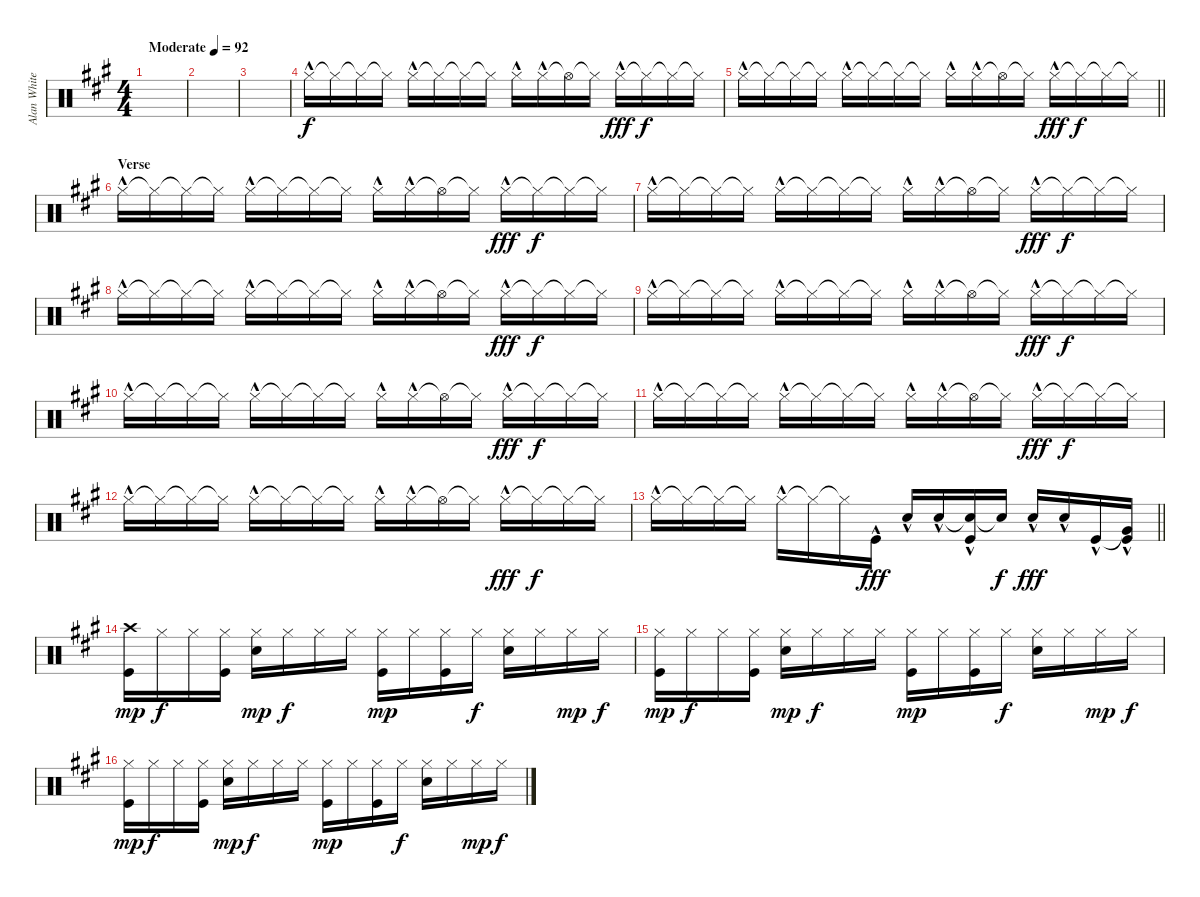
\track ("Alan White" "Alan White") {instrument percussion}
\staff {score}
\articulation defaults
\ts (4 4)
\tempo (92 "Moderate")
\clef neutral
\ks a
|
|
|
"Hi-Hat (closed)"{hac}.16 "Hi-Hat (closed)"{t}.16 "Hi-Hat (closed)"{t}.16 "Hi-Hat (closed)"{t}.16 "Hi-Hat (closed)"{hac}.16 "Hi-Hat (closed)"{t}.16 "Hi-Hat (closed)"{t}.16 "Hi-Hat (closed)"{t}.16 "Hi-Hat (closed)"{hac}.16 "Hi-Hat (closed)"{hac}.16 "Hi-Hat (open)"{t}.16 "Hi-Hat (closed)"{t}.16 "Hi-Hat (closed)"{hac}.16{dy fff} "Hi-Hat (closed)"{t}.16{dy f} "Hi-Hat (closed)"{t}.16 "Hi-Hat (closed)"{t}.16 |
\barLineRight lightlight "Hi-Hat (closed)"{hac}.16 "Hi-Hat (closed)"{t}.16 "Hi-Hat (closed)"{t}.16 "Hi-Hat (closed)"{t}.16 "Hi-Hat (closed)"{hac}.16 "Hi-Hat (closed)"{t}.16 "Hi-Hat (closed)"{t}.16 "Hi-Hat (closed)"{t}.16 "Hi-Hat (closed)"{hac}.16 "Hi-Hat (closed)"{hac}.16 "Hi-Hat (open)"{t}.16 "Hi-Hat (closed)"{t}.16 "Hi-Hat (closed)"{hac}.16{dy fff} "Hi-Hat (closed)"{t}.16{dy f} "Hi-Hat (closed)"{t}.16 "Hi-Hat (closed)"{t}.16
|
\section ("" "Verse")
"Hi-Hat (closed)"{hac}.16 "Hi-Hat (closed)"{t}.16 "Hi-Hat (closed)"{t}.16 "Hi-Hat (closed)"{t}.16 "Hi-Hat (closed)"{hac}.16 "Hi-Hat (closed)"{t}.16 "Hi-Hat (closed)"{t}.16 "Hi-Hat (closed)"{t}.16 "Hi-Hat (closed)"{hac}.16 "Hi-Hat (closed)"{hac}.16 "Hi-Hat (open)"{t}.16 "Hi-Hat (closed)"{t}.16 "Hi-Hat (closed)"{hac}.16{dy fff} "Hi-Hat (closed)"{t}.16{dy f} "Hi-Hat (closed)"{t}.16 "Hi-Hat (closed)"{t}.16 |
"Hi-Hat (closed)"{hac}.16 "Hi-Hat (closed)"{t}.16 "Hi-Hat (closed)"{t}.16 "Hi-Hat (closed)"{t}.16 "Hi-Hat (closed)"{hac}.16 "Hi-Hat (closed)"{t}.16 "Hi-Hat (closed)"{t}.16 "Hi-Hat (closed)"{t}.16 "Hi-Hat (closed)"{hac}.16 "Hi-Hat (closed)"{hac}.16 "Hi-Hat (open)"{t}.16 "Hi-Hat (closed)"{t}.16 "Hi-Hat (closed)"{hac}.16{dy fff} "Hi-Hat (closed)"{t}.16{dy f} "Hi-Hat (closed)"{t}.16 "Hi-Hat (closed)"{t}.16 |
"Hi-Hat (closed)"{hac}.16 "Hi-Hat (closed)"{t}.16 "Hi-Hat (closed)"{t}.16 "Hi-Hat (closed)"{t}.16 "Hi-Hat (closed)"{hac}.16 "Hi-Hat (closed)"{t}.16 "Hi-Hat (closed)"{t}.16 "Hi-Hat (closed)"{t}.16 "Hi-Hat (closed)"{hac}.16 "Hi-Hat (closed)"{hac}.16 "Hi-Hat (open)"{t}.16 "Hi-Hat (closed)"{t}.16 "Hi-Hat (closed)"{hac}.16{dy fff} "Hi-Hat (closed)"{t}.16{dy f} "Hi-Hat (closed)"{t}.16 "Hi-Hat (closed)"{t}.16 |
"Hi-Hat (closed)"{hac}.16 "Hi-Hat (closed)"{t}.16 "Hi-Hat (closed)"{t}.16 "Hi-Hat (closed)"{t}.16 "Hi-Hat (closed)"{hac}.16 "Hi-Hat (closed)"{t}.16 "Hi-Hat (closed)"{t}.16 "Hi-Hat (closed)"{t}.16 "Hi-Hat (closed)"{hac}.16 "Hi-Hat (closed)"{hac}.16 "Hi-Hat (open)"{t}.16 "Hi-Hat (closed)"{t}.16 "Hi-Hat (closed)"{hac}.16{dy fff} "Hi-Hat (closed)"{t}.16{dy f} "Hi-Hat (closed)"{t}.16 "Hi-Hat (closed)"{t}.16 |
"Hi-Hat (closed)"{hac}.16 "Hi-Hat (closed)"{t}.16 "Hi-Hat (closed)"{t}.16 "Hi-Hat (closed)"{t}.16 "Hi-Hat (closed)"{hac}.16 "Hi-Hat (closed)"{t}.16 "Hi-Hat (closed)"{t}.16 "Hi-Hat (closed)"{t}.16 "Hi-Hat (closed)"{hac}.16 "Hi-Hat (closed)"{hac}.16 "Hi-Hat (open)"{t}.16 "Hi-Hat (closed)"{t}.16 "Hi-Hat (closed)"{hac}.16{dy fff} "Hi-Hat (closed)"{t}.16{dy f} "Hi-Hat (closed)"{t}.16 "Hi-Hat (closed)"{t}.16 |
"Hi-Hat (closed)"{hac}.16 "Hi-Hat (closed)"{t}.16 "Hi-Hat (closed)"{t}.16 "Hi-Hat (closed)"{t}.16 "Hi-Hat (closed)"{hac}.16 "Hi-Hat (closed)"{t}.16 "Hi-Hat (closed)"{t}.16 "Hi-Hat (closed)"{t}.16 "Hi-Hat (closed)"{hac}.16 "Hi-Hat (closed)"{hac}.16 "Hi-Hat (open)"{t}.16 "Hi-Hat (closed)"{t}.16 "Hi-Hat (closed)"{hac}.16{dy fff} "Hi-Hat (closed)"{t}.16{dy f} "Hi-Hat (closed)"{t}.16 "Hi-Hat (closed)"{t}.16 |
"Hi-Hat (closed)"{hac}.16 "Hi-Hat (closed)"{t}.16 "Hi-Hat (closed)"{t}.16 "Hi-Hat (closed)"{t}.16 "Hi-Hat (closed)"{hac}.16 "Hi-Hat (closed)"{t}.16 "Hi-Hat (closed)"{t}.16 "Hi-Hat (closed)"{t}.16 "Hi-Hat (closed)"{hac}.16 "Hi-Hat (closed)"{hac}.16 "Hi-Hat (open)"{t}.16 "Hi-Hat (closed)"{t}.16 "Hi-Hat (closed)"{hac}.16{dy fff} "Hi-Hat (closed)"{t}.16{dy f} "Hi-Hat (closed)"{t}.16 "Hi-Hat (closed)"{t}.16 |
\barLineRight lightlight "Hi-Hat (closed)"{hac}.16 "Hi-Hat (closed)"{t}.16 "Hi-Hat (closed)"{t}.16 "Hi-Hat (closed)"{t}.16 "Hi-Hat (closed)"{hac}.16 "Hi-Hat (closed)"{t}.16 "Hi-Hat (closed)"{t}.16 "Kick (hit)"{hac}.16{dy fff} "Snare (hit) 2"{hac}.16 "Snare (hit) 2"{hac}.16
("Snare (hit) 2"{t} "Kick (hit)"{hac}).16 "Snare (hit) 2"{t}.16{dy f} "Snare (hit) 2"{hac}.16{dy fff} "Snare (hit) 2"{hac}.16 "Kick (hit)"{hac}.16 ("Very Low Tom (hit)"{t} "Kick (hit)"{hac}).16 |
\section ("" "")
("Crash high (hit)" "Kick (hit)").16{dy mp} "Hi-Hat (closed)".16{dy f} "Hi-Hat (closed)".16 ("Hi-Hat (closed)" "Kick (hit)").16 ("Hi-Hat (closed)" "Snare (hit) 2").16{dy mp} "Hi-Hat (closed)".16{dy f} "Hi-Hat (closed)".16 "Hi-Hat (closed)".16 ("Hi-Hat (closed)" "Kick (hit)").16{dy mp} "Hi-Hat (closed)".16 ("Hi-Hat (closed)" "Kick (hit)").16 "Hi-Hat (closed)".16{dy f} ("Hi-Hat (closed)" "Snare (hit) 2").16 "Hi-Hat (closed)".16 "Hi-Hat (closed)".16{dy mp} "Hi-Hat (closed)".16{dy f} |
("Hi-Hat (closed)" "Kick (hit)").16{dy mp} "Hi-Hat (closed)".16{dy f} "Hi-Hat (closed)".16 ("Hi-Hat (closed)" "Kick (hit)").16 ("Hi-Hat (closed)" "Snare (hit) 2").16{dy mp} "Hi-Hat (closed)".16{dy f} "Hi-Hat (closed)".16 "Hi-Hat (closed)".16 ("Hi-Hat (closed)" "Kick (hit)").16{dy mp} "Hi-Hat (closed)".16 ("Hi-Hat (closed)" "Kick (hit)").16 "Hi-Hat (closed)".16{dy f} ("Hi-Hat (closed)" "Snare (hit) 2").16 "Hi-Hat (closed)".16 "Hi-Hat (closed)".16{dy mp} "Hi-Hat (closed)".16{dy f} |
("Hi-Hat (closed)" "Kick (hit)").16{dy mp} "Hi-Hat (closed)".16{dy f} "Hi-Hat (closed)".16 ("Hi-Hat (closed)" "Kick (hit)").16 ("Hi-Hat (closed)" "Snare (hit) 2").16{dy mp} "Hi-Hat (closed)".16{dy f} "Hi-Hat (closed)".16 "Hi-Hat (closed)".16 ("Hi-Hat (closed)" "Kick (hit)").16{dy mp} "Hi-Hat (closed)".16 ("Hi-Hat (closed)" "Kick (hit)").16 "Hi-Hat (closed)".16{dy f} ("Hi-Hat (closed)" "Snare (hit) 2").16 "Hi-Hat (closed)".16 "Hi-Hat (closed)".16{dy mp} "Hi-Hat (closed)".16{dy f}
